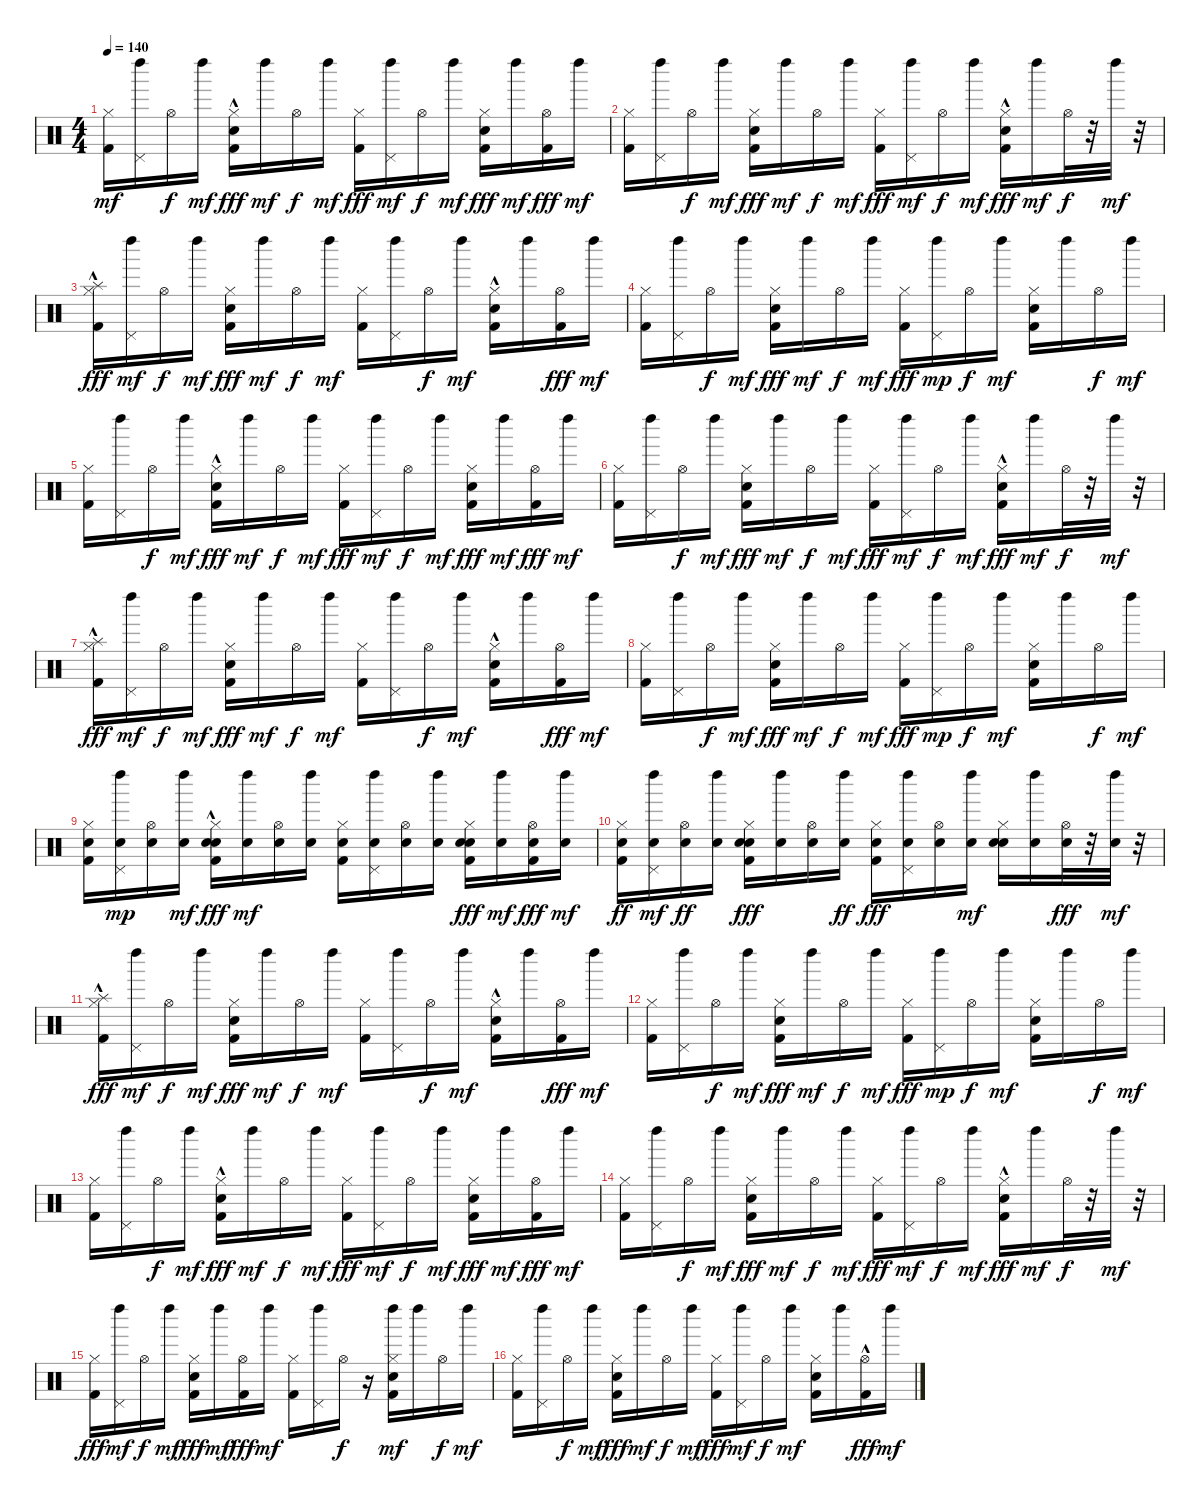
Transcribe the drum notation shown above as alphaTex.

\track "" {instrument percussion}
\staff {score}
\articulation defaults
\ts (4 4)
\tempo 140
\clef neutral
\ks c
("Kick (hit) 2" "Hi-Hat (closed)").16{dy mf} ("Pedal Hi-Hat (hit)" "Left Maraca (hit)").16 "Hi-Hat (open)".16{dy f} "Left Maraca (hit)".16{dy mf} ("Hand Clap (hit)" "Hi-Hat (closed)" "Kick (hit) 2"{hac}).16{dy fff} "Left Maraca (hit)".16{dy mf} "Hi-Hat (open)".16{dy f} "Left Maraca (hit)".16{dy mf} ("Hi-Hat (closed)" "Kick (hit) 2").16{dy fff} ("Pedal Hi-Hat (hit)" "Left Maraca (hit)").16{dy mf} "Hi-Hat (open)".16{dy f} "Left Maraca (hit)".16{dy mf} ("Hi-Hat (closed)" "Kick (hit) 2" "Hand Clap (hit)").16{dy fff} "Left Maraca (hit)".16{dy mf} ("Kick (hit) 2" "Hi-Hat (open)").16{dy fff} "Left Maraca (hit)".16{dy mf} |
("Kick (hit) 2" "Hi-Hat (closed)").16 ("Pedal Hi-Hat (hit)" "Left Maraca (hit)").16 "Hi-Hat (open)".16{dy f} "Left Maraca (hit)".16{dy mf} ("Hand Clap (hit)" "Hi-Hat (closed)" "Kick (hit) 2").16{dy fff} "Left Maraca (hit)".16{dy mf} "Hi-Hat (open)".16{dy f} "Left Maraca (hit)".16{dy mf} ("Hi-Hat (closed)" "Kick (hit) 2").16{dy fff} ("Pedal Hi-Hat (hit)" "Left Maraca (hit)").16{dy mf} "Hi-Hat (open)".16{dy f} "Left Maraca (hit)".16{dy mf} ("Hand Clap (hit)" "Hi-Hat (closed)" "Kick (hit) 2"{hac}).16{dy fff} "Left Maraca (hit)".16{dy mf} "Hi-Hat (open)".32{dy f} r.32 "Left Maraca (hit)".32{dy mf} r.32 |
("Splash (hit)"{hac} "Hi-Hat (closed)" "Kick (hit) 2").16{dy fff} ("Pedal Hi-Hat (hit)" "Left Maraca (hit)").16{dy mf} "Hi-Hat (open)".16{dy f} "Left Maraca (hit)".16{dy mf} ("Kick (hit) 2" "Hi-Hat (closed)" "Hand Clap (hit)").16{dy fff} "Left Maraca (hit)".16{dy mf} "Hi-Hat (open)".16{dy f} "Left Maraca (hit)".16{dy mf} ("Kick (hit) 2" "Hi-Hat (closed)").16 ("Pedal Hi-Hat (hit)" "Left Maraca (hit)").16 "Hi-Hat (open)".16{dy f} "Left Maraca (hit)".16{dy mf} ("Hand Clap (hit)"{hac} "Kick (hit) 2" "Hi-Hat (closed)").16 "Left Maraca (hit)".16 ("Kick (hit) 2" "Hi-Hat (open)").16{dy fff} "Left Maraca (hit)".16{dy mf} |
("Kick (hit) 2" "Hi-Hat (closed)").16 ("Pedal Hi-Hat (hit)" "Left Maraca (hit)").16 "Hi-Hat (open)".16{dy f} "Left Maraca (hit)".16{dy mf} ("Hand Clap (hit)" "Hi-Hat (closed)" "Kick (hit) 2").16{dy fff} "Left Maraca (hit)".16{dy mf} "Hi-Hat (open)".16{dy f} "Left Maraca (hit)".16{dy mf} ("Hi-Hat (closed)" "Kick (hit) 2").16{dy fff} ("Left Maraca (hit)" "Pedal Hi-Hat (hit)").16{dy mp} "Hi-Hat (open)".16{dy f} "Left Maraca (hit)".16{dy mf} ("Hand Clap (hit)" "Kick (hit) 2" "Hi-Hat (closed)").16 "Left Maraca (hit)".16 "Hi-Hat (open)".16{dy f} "Left Maraca (hit)".16{dy mf} |
("Kick (hit) 2" "Hi-Hat (closed)").16 ("Pedal Hi-Hat (hit)" "Left Maraca (hit)").16 "Hi-Hat (open)".16{dy f} "Left Maraca (hit)".16{dy mf} ("Hand Clap (hit)" "Hi-Hat (closed)" "Kick (hit) 2"{hac}).16{dy fff} "Left Maraca (hit)".16{dy mf} "Hi-Hat (open)".16{dy f} "Left Maraca (hit)".16{dy mf} ("Hi-Hat (closed)" "Kick (hit) 2").16{dy fff} ("Pedal Hi-Hat (hit)" "Left Maraca (hit)").16{dy mf} "Hi-Hat (open)".16{dy f} "Left Maraca (hit)".16{dy mf} ("Hi-Hat (closed)" "Kick (hit) 2" "Hand Clap (hit)").16{dy fff} "Left Maraca (hit)".16{dy mf} ("Kick (hit) 2" "Hi-Hat (open)").16{dy fff} "Left Maraca (hit)".16{dy mf} |
("Kick (hit) 2" "Hi-Hat (closed)").16 ("Pedal Hi-Hat (hit)" "Left Maraca (hit)").16 "Hi-Hat (open)".16{dy f} "Left Maraca (hit)".16{dy mf} ("Hand Clap (hit)" "Hi-Hat (closed)" "Kick (hit) 2").16{dy fff} "Left Maraca (hit)".16{dy mf} "Hi-Hat (open)".16{dy f} "Left Maraca (hit)".16{dy mf} ("Hi-Hat (closed)" "Kick (hit) 2").16{dy fff} ("Pedal Hi-Hat (hit)" "Left Maraca (hit)").16{dy mf} "Hi-Hat (open)".16{dy f} "Left Maraca (hit)".16{dy mf} ("Hand Clap (hit)" "Hi-Hat (closed)" "Kick (hit) 2"{hac}).16{dy fff} "Left Maraca (hit)".16{dy mf} "Hi-Hat (open)".32{dy f} r.32 "Left Maraca (hit)".32{dy mf} r.32 |
("Splash (hit)"{hac} "Hi-Hat (closed)" "Kick (hit) 2").16{dy fff} ("Pedal Hi-Hat (hit)" "Left Maraca (hit)").16{dy mf} "Hi-Hat (open)".16{dy f} "Left Maraca (hit)".16{dy mf} ("Kick (hit) 2" "Hi-Hat (closed)" "Hand Clap (hit)").16{dy fff} "Left Maraca (hit)".16{dy mf} "Hi-Hat (open)".16{dy f} "Left Maraca (hit)".16{dy mf} ("Kick (hit) 2" "Hi-Hat (closed)").16 ("Pedal Hi-Hat (hit)" "Left Maraca (hit)").16 "Hi-Hat (open)".16{dy f} "Left Maraca (hit)".16{dy mf} ("Hand Clap (hit)"{hac} "Kick (hit) 2" "Hi-Hat (closed)").16 "Left Maraca (hit)".16 ("Kick (hit) 2" "Hi-Hat (open)").16{dy fff} "Left Maraca (hit)".16{dy mf} |
("Kick (hit) 2" "Hi-Hat (closed)").16 ("Pedal Hi-Hat (hit)" "Left Maraca (hit)").16 "Hi-Hat (open)".16{dy f} "Left Maraca (hit)".16{dy mf} ("Hand Clap (hit)" "Hi-Hat (closed)" "Kick (hit) 2").16{dy fff} "Left Maraca (hit)".16{dy mf} "Hi-Hat (open)".16{dy f} "Left Maraca (hit)".16{dy mf} ("Hi-Hat (closed)" "Kick (hit) 2").16{dy fff} ("Left Maraca (hit)" "Pedal Hi-Hat (hit)").16{dy mp} "Hi-Hat (open)".16{dy f} "Left Maraca (hit)".16{dy mf} ("Hand Clap (hit)" "Kick (hit) 2" "Hi-Hat (closed)").16 "Left Maraca (hit)".16 "Hi-Hat (open)".16{dy f} "Left Maraca (hit)".16{dy mf} |
("Snare (hit) 2" "Kick (hit) 2" "Hi-Hat (closed)").16 ("Pedal Hi-Hat (hit)" "Left Maraca (hit)" "Snare (hit) 2").16{dy mp} ("Snare (hit) 2" "Hi-Hat (open)").16 ("Snare (hit) 2" "Left Maraca (hit)").16{dy mf} ("Snare (hit) 2" "Hand Clap (hit)" "Hi-Hat (closed)" "Kick (hit) 2"{hac}).16{dy fff} ("Snare (hit) 2" "Left Maraca (hit)").16{dy mf} ("Snare (hit) 2" "Hi-Hat (open)").16 ("Snare (hit) 2" "Left Maraca (hit)").16 ("Hi-Hat (closed)" "Kick (hit) 2" "Snare (hit) 2").16 ("Snare (hit) 2" "Pedal Hi-Hat (hit)" "Left Maraca (hit)").16 ("Snare (hit) 2" "Hi-Hat (open)").16 ("Left Maraca (hit)" "Snare (hit) 2").16 ("Hi-Hat (closed)" "Kick (hit) 2" "Hand Clap (hit)" "Snare (hit) 2").16{dy fff} ("Left Maraca (hit)" "Snare (hit) 2").16{dy mf} ("Kick (hit) 2" "Snare (hit) 2" "Hi-Hat (open)").16{dy fff} ("Left Maraca (hit)" "Snare (hit) 2").16{dy mf} |
("Kick (hit) 2" "Hi-Hat (closed)" "Snare (hit) 2").16{dy ff} ("Pedal Hi-Hat (hit)" "Left Maraca (hit)" "Snare (hit) 2").16{dy mf} ("Snare (hit) 2" "Hi-Hat (open)").16{dy ff} ("Left Maraca (hit)" "Snare (hit) 2").16 ("Hand Clap (hit)" "Hi-Hat (closed)" "Kick (hit) 2" "Snare (hit) 2").16{dy fff} ("Left Maraca (hit)" "Snare (hit) 2").16 ("Snare (hit) 2" "Hi-Hat (open)").16 ("Left Maraca (hit)" "Snare (hit) 2").16{dy ff} ("Hi-Hat (closed)" "Kick (hit) 2" "Snare (hit) 2").16{dy fff} ("Pedal Hi-Hat (hit)" "Left Maraca (hit)" "Snare (hit) 2").16 ("Snare (hit) 2" "Hi-Hat (open)").16 ("Snare (hit) 2" "Left Maraca (hit)").16{dy mf} ("Snare (hit) 2" "Hand Clap (hit)" "Hi-Hat (closed)").16 ("Snare (hit) 2" "Left Maraca (hit)").16 ("Snare (hit) 2" "Hi-Hat (open)").32{dy fff} r.32 ("Snare (hit) 2" "Left Maraca (hit)").32{dy mf} r.32 |
("Splash (hit)"{hac} "Hi-Hat (closed)" "Kick (hit) 2").16{dy fff} ("Pedal Hi-Hat (hit)" "Left Maraca (hit)").16{dy mf} "Hi-Hat (open)".16{dy f} "Left Maraca (hit)".16{dy mf} ("Kick (hit) 2" "Hi-Hat (closed)" "Hand Clap (hit)").16{dy fff} "Left Maraca (hit)".16{dy mf} "Hi-Hat (open)".16{dy f} "Left Maraca (hit)".16{dy mf} ("Kick (hit) 2" "Hi-Hat (closed)").16 ("Pedal Hi-Hat (hit)" "Left Maraca (hit)").16 "Hi-Hat (open)".16{dy f} "Left Maraca (hit)".16{dy mf} ("Hand Clap (hit)"{hac} "Kick (hit) 2" "Hi-Hat (closed)").16 "Left Maraca (hit)".16 ("Kick (hit) 2" "Hi-Hat (open)").16{dy fff} "Left Maraca (hit)".16{dy mf} |
("Kick (hit) 2" "Hi-Hat (closed)").16 ("Pedal Hi-Hat (hit)" "Left Maraca (hit)").16 "Hi-Hat (open)".16{dy f} "Left Maraca (hit)".16{dy mf} ("Hand Clap (hit)" "Hi-Hat (closed)" "Kick (hit) 2").16{dy fff} "Left Maraca (hit)".16{dy mf} "Hi-Hat (open)".16{dy f} "Left Maraca (hit)".16{dy mf} ("Hi-Hat (closed)" "Kick (hit) 2").16{dy fff} ("Left Maraca (hit)" "Pedal Hi-Hat (hit)").16{dy mp} "Hi-Hat (open)".16{dy f} "Left Maraca (hit)".16{dy mf} ("Hand Clap (hit)" "Kick (hit) 2" "Hi-Hat (closed)").16 "Left Maraca (hit)".16 "Hi-Hat (open)".16{dy f} "Left Maraca (hit)".16{dy mf} |
("Kick (hit) 2" "Hi-Hat (closed)").16 ("Pedal Hi-Hat (hit)" "Left Maraca (hit)").16 "Hi-Hat (open)".16{dy f} "Left Maraca (hit)".16{dy mf} ("Hand Clap (hit)" "Hi-Hat (closed)" "Kick (hit) 2"{hac}).16{dy fff} "Left Maraca (hit)".16{dy mf} "Hi-Hat (open)".16{dy f} "Left Maraca (hit)".16{dy mf} ("Hi-Hat (closed)" "Kick (hit) 2").16{dy fff} ("Pedal Hi-Hat (hit)" "Left Maraca (hit)").16{dy mf} "Hi-Hat (open)".16{dy f} "Left Maraca (hit)".16{dy mf} ("Hi-Hat (closed)" "Kick (hit) 2" "Hand Clap (hit)").16{dy fff} "Left Maraca (hit)".16{dy mf} ("Kick (hit) 2" "Hi-Hat (open)").16{dy fff} "Left Maraca (hit)".16{dy mf} |
("Kick (hit) 2" "Hi-Hat (closed)").16 ("Pedal Hi-Hat (hit)" "Left Maraca (hit)").16 "Hi-Hat (open)".16{dy f} "Left Maraca (hit)".16{dy mf} ("Hand Clap (hit)" "Hi-Hat (closed)" "Kick (hit) 2").16{dy fff} "Left Maraca (hit)".16{dy mf} "Hi-Hat (open)".16{dy f} "Left Maraca (hit)".16{dy mf} ("Hi-Hat (closed)" "Kick (hit) 2").16{dy fff} ("Pedal Hi-Hat (hit)" "Left Maraca (hit)").16{dy mf} "Hi-Hat (open)".16{dy f} "Left Maraca (hit)".16{dy mf} ("Hand Clap (hit)" "Hi-Hat (closed)" "Kick (hit) 2"{hac}).16{dy fff} "Left Maraca (hit)".16{dy mf} "Hi-Hat (open)".32{dy f} r.32 "Left Maraca (hit)".32{dy mf} r.32 |
("Hi-Hat (closed)" "Kick (hit) 2").16{dy fff} ("Pedal Hi-Hat (hit)" "Left Maraca (hit)").16{dy mf} "Hi-Hat (open)".16{dy f} "Left Maraca (hit)".16{dy mf} ("Kick (hit) 2" "Hi-Hat (closed)" "Hand Clap (hit)").16{dy fff} "Left Maraca (hit)".16{dy mf} ("Kick (hit) 2" "Hi-Hat (open)").16{dy fff} "Left Maraca (hit)".16{dy mf} ("Kick (hit) 2" "Hi-Hat (closed)").16 ("Pedal Hi-Hat (hit)" "Left Maraca (hit)").16 "Hi-Hat (open)".16{dy f} r.16 ("Left Maraca (hit)" "Hand Clap (hit)" "Kick (hit) 2" "Hi-Hat (closed)").16{dy mf} "Left Maraca (hit)".16 "Hi-Hat (open)".16{dy f} "Left Maraca (hit)".16{dy mf} |
("Kick (hit) 2" "Hi-Hat (closed)").16 ("Pedal Hi-Hat (hit)" "Left Maraca (hit)").16 "Hi-Hat (open)".16{dy f} "Left Maraca (hit)".16{dy mf} ("Hand Clap (hit)" "Hi-Hat (closed)" "Kick (hit) 2").16{dy fff} "Left Maraca (hit)".16{dy mf} "Hi-Hat (open)".16{dy f} "Left Maraca (hit)".16{dy mf} ("Hi-Hat (closed)" "Kick (hit) 2").16{dy fff} ("Pedal Hi-Hat (hit)" "Left Maraca (hit)").16{dy mf} "Hi-Hat (open)".16{dy f} "Left Maraca (hit)".16{dy mf} ("Hand Clap (hit)" "Kick (hit) 2" "Hi-Hat (closed)").16 "Left Maraca (hit)".16 ("Kick (hit) 2"{hac} "Hi-Hat (open)").16{dy fff} "Left Maraca (hit)".16{dy mf}
